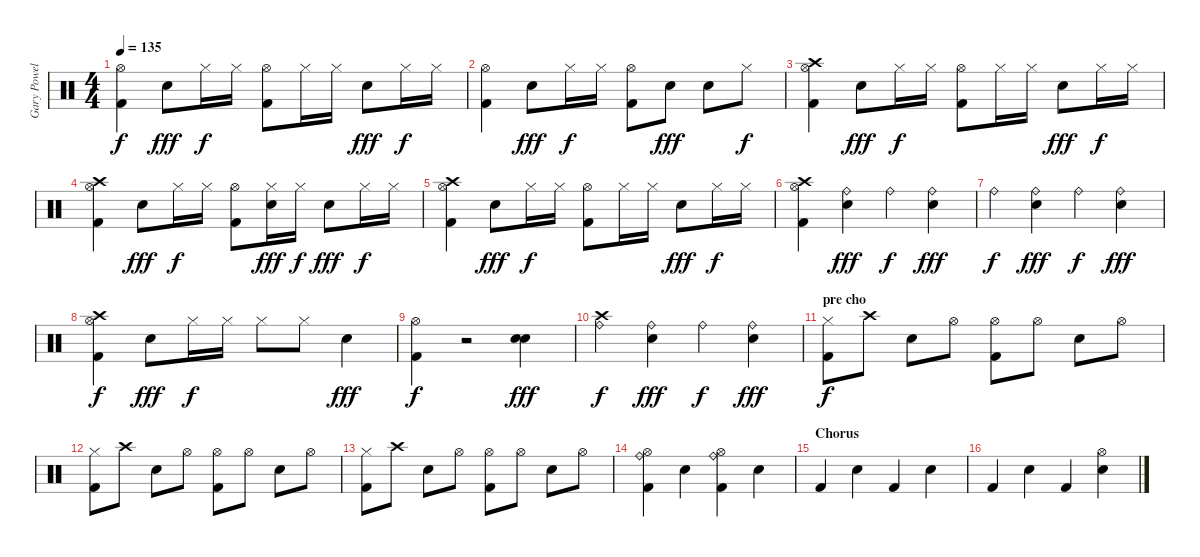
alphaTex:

\track ("Gary Powell" "Gary Powel") {instrument percussion}
\staff {score}
\articulation defaults
\ts (4 4)
\tempo 135
\clef neutral
\ks c
("Hi-Hat (open)" "Kick (hit) 2").4{dy f} "Electric Snare (hit)".8{dy fff} "Hi-Hat (closed)".16{dy f} "Hi-Hat (closed)".16 ("Hi-Hat (open)" "Kick (hit) 2").8 "Hi-Hat (closed)".16 "Hi-Hat (closed)".16 "Electric Snare (hit)".8{dy fff} "Hi-Hat (closed)".16{dy f} "Hi-Hat (closed)".16 |
("Hi-Hat (open)" "Kick (hit) 2").4 "Electric Snare (hit)".8{dy fff} "Hi-Hat (closed)".16{dy f} "Hi-Hat (closed)".16 ("Hi-Hat (open)" "Kick (hit) 2").8 "Electric Snare (hit)".8{dy fff} "Electric Snare (hit)".8 "Hi-Hat (closed)".8{dy f} |
("Hi-Hat (open)" "Kick (hit) 2" "Crash high (hit)").4 "Electric Snare (hit)".8{dy fff} "Hi-Hat (closed)".16{dy f} "Hi-Hat (closed)".16 ("Hi-Hat (open)" "Kick (hit) 2").8 "Hi-Hat (closed)".16 "Hi-Hat (closed)".16 "Electric Snare (hit)".8{dy fff} "Hi-Hat (closed)".16{dy f} "Hi-Hat (closed)".16 |
("Hi-Hat (open)" "Kick (hit) 2" "Crash high (hit)").4 "Electric Snare (hit)".8{dy fff} "Hi-Hat (closed)".16{dy f} "Hi-Hat (closed)".16 ("Hi-Hat (open)" "Kick (hit) 2").8 ("Hi-Hat (closed)" "Electric Snare (hit)").16{dy fff} "Hi-Hat (closed)".16{dy f} "Electric Snare (hit)".8{dy fff} "Hi-Hat (closed)".16{dy f} "Hi-Hat (closed)".16 |
("Hi-Hat (open)" "Kick (hit) 2" "Crash high (hit)").4 "Electric Snare (hit)".8{dy fff} "Hi-Hat (closed)".16{dy f} "Hi-Hat (closed)".16 ("Hi-Hat (open)" "Kick (hit) 2").8 "Hi-Hat (closed)".16 "Hi-Hat (closed)".16 "Electric Snare (hit)".8{dy fff} "Hi-Hat (closed)".16{dy f} "Hi-Hat (closed)".16 |
("Hi-Hat (open)" "Kick (hit) 2" "Crash high (hit)").4 ("Ride (bell)" "Electric Snare (hit)").4{dy fff} "Ride (bell)".4{dy f} ("Ride (bell)" "Electric Snare (hit)").4{dy fff} |
"Ride (bell)".4{dy f} ("Ride (bell)" "Electric Snare (hit)").4{dy fff} "Ride (bell)".4{dy f} ("Ride (bell)" "Electric Snare (hit)").4{dy fff} |
("Hi-Hat (open)" "Kick (hit) 2" "Crash high (hit)").4{dy f} "Electric Snare (hit)".8{dy fff} "Hi-Hat (closed)".16{dy f} "Hi-Hat (closed)".16 "Hi-Hat (closed)".8 "Hi-Hat (closed)".8 "Electric Snare (hit)".4{dy fff} |
("Hi-Hat (open)" "Kick (hit) 2").4{dy f} r.2 ("Electric Snare (hit)" "Electric Snare (hit)").4{dy fff} |
("Ride (bell)" "Crash high (hit)").4{dy f} ("Ride (bell)" "Electric Snare (hit)").4{dy fff} "Ride (bell)".4{dy f} ("Ride (bell)" "Electric Snare (hit)").4{dy fff} |
\section ("" "pre cho")
("Hi-Hat (closed)" "Kick (hit) 2").8{dy f} "Crash high (hit)".8 "Electric Snare (hit)".8 "Hi-Hat (open)".8 ("Hi-Hat (open)" "Kick (hit) 2").8 "Hi-Hat (open)".8 "Electric Snare (hit)".8 "Hi-Hat (open)".8 |
("Hi-Hat (closed)" "Kick (hit) 2").8 "Crash high (hit)".8 "Electric Snare (hit)".8 "Hi-Hat (open)".8 ("Hi-Hat (open)" "Kick (hit) 2").8 "Hi-Hat (open)".8 "Electric Snare (hit)".8 "Hi-Hat (open)".8 |
("Hi-Hat (closed)" "Kick (hit) 2").8 "Crash high (hit)".8 "Electric Snare (hit)".8 "Hi-Hat (open)".8 ("Hi-Hat (open)" "Kick (hit) 2").8 "Hi-Hat (open)".8 "Electric Snare (hit)".8 "Hi-Hat (open)".8 |
("Hi-Hat (open)" "Ride (bell)" "Kick (hit) 2").4 "Electric Snare (hit)".4 ("Hi-Hat (open)" "Ride (bell)" "Kick (hit) 2").4 "Electric Snare (hit)".4 |
\section ("" "Chorus")
"Kick (hit) 2".4 "Electric Snare (hit)".4 "Kick (hit) 2".4 "Electric Snare (hit)".4 |
"Kick (hit) 2".4 "Electric Snare (hit)".4 "Kick (hit) 2".4 ("Hi-Hat (open)" "Electric Snare (hit)").4
